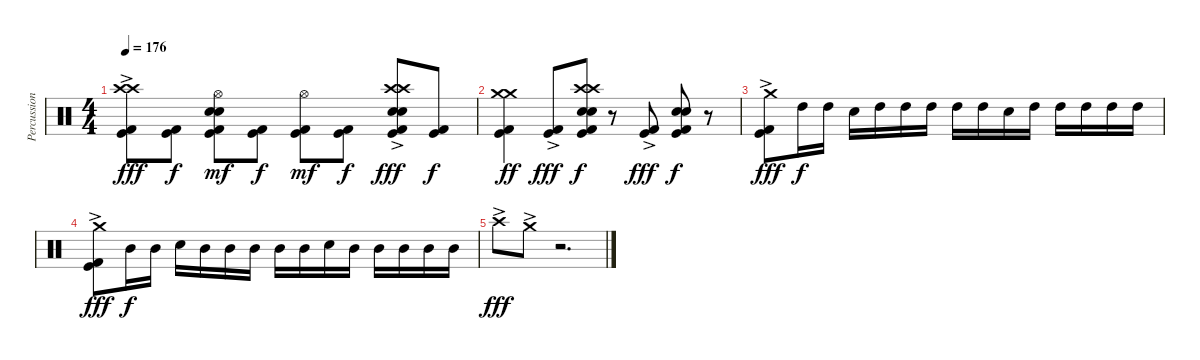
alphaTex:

\track ("Percussion" "Percussion") {instrument percussion}
\staff {score}
\articulation defaults
\ts (4 4)
\tempo 176
\clef neutral
\ks c
("Kick (hit) 2" "Kick (hit)" "Crash high (hit)"{ac} "Crash high (hit)"{ac}).8{dy fff} ("Kick (hit) 2" "Kick (hit)").8{dy f} ("Kick (hit) 2" "Kick (hit)" "Electric Snare (hit)" "Snare (hit) 2" "Hi-Hat (open)").8{dy mf} ("Kick (hit) 2" "Kick (hit)").8{dy f} ("Kick (hit) 2" "Kick (hit)" "Hi-Hat (open)").8{dy mf} ("Kick (hit) 2" "Kick (hit)").8{dy f} ("Kick (hit) 2" "Kick (hit)" "Electric Snare (hit)" "Snare (hit) 2" "Crash high (hit)"{ac} "Crash high (hit)"{ac}).8{dy fff} ("Kick (hit) 2" "Kick (hit)").8{dy f} |
("Kick (hit) 2" "Kick (hit)" "Crash medium (hit)" "Crash medium (hit)").4{dy ff} ("Kick (hit) 2"{ac} "Kick (hit)"{ac}).8{dy fff} ("Kick (hit) 2" "Kick (hit)" "Electric Snare (hit)" "Snare (hit) 2" "Crash high (hit)" "Crash high (hit)").8{dy f} r.8 ("Kick (hit) 2"{ac} "Kick (hit)"{ac}).8{dy fff} ("Kick (hit) 2" "Kick (hit)" "Electric Snare (hit)" "Snare (hit) 2").8{dy f} r.8 |
("Kick (hit) 2" "Kick (hit)" "Crash medium (hit)"{ac}).8{dy fff} "High Tom (hit)".16{dy f} "High Tom (hit)".16 "Electric Snare (hit)".16 "High Tom (hit)".16 "High Tom (hit)".16 "High Tom (hit)".16 "High Tom (hit)".16 "High Tom (hit)".16 "Electric Snare (hit)".16 "High Tom (hit)".16 "High Tom (hit)".16 "High Tom (hit)".16 "High Tom (hit)".16 "High Tom (hit)".16 |
("Kick (hit) 2" "Kick (hit)" "Crash medium (hit)"{ac}).8{dy fff} "Mid Tom (hit)".16{dy f} "Mid Tom (hit)".16 "Electric Snare (hit)".16 "Mid Tom (hit)".16 "Mid Tom (hit)".16 "Mid Tom (hit)".16 "Mid Tom (hit)".16 "Mid Tom (hit)".16 "Electric Snare (hit)".16 "Mid Tom (hit)".16 "Mid Tom (hit)".16 "Mid Tom (hit)".16 "Mid Tom (hit)".16 "Mid Tom (hit)".16 |
"Crash high (hit)"{ac}.8{dy fff} "Crash medium (hit)"{ac}.8 r.2{d volume 0}
